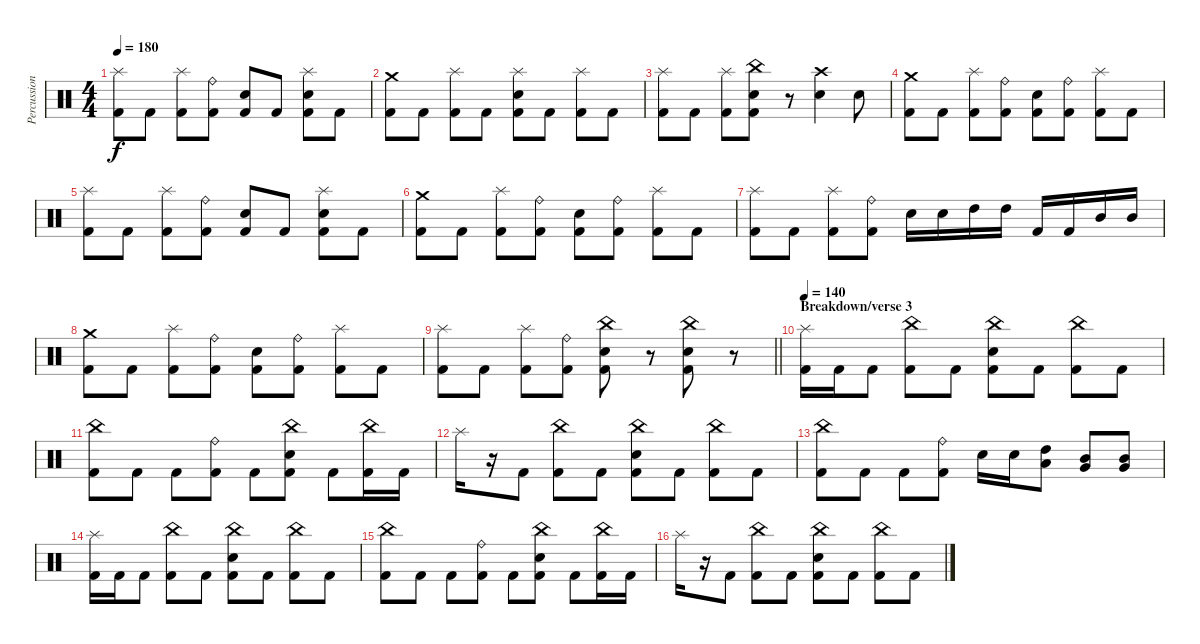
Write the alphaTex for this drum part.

\track ("Percussion" "Percussion") {instrument percussion}
\staff {score}
\articulation defaults
\ts (4 4)
\tempo 180
\clef neutral
\ks c
("Splash (hit)" "Kick (hit) 2").8{dy f} "Kick (hit) 2".8 ("Splash (hit)" "Kick (hit) 2").8 ("Ride (bell)" "Kick (hit) 2").8 ("Electric Snare (hit)" "Kick (hit) 2").8 "Kick (hit) 2".8 ("Splash (hit)" "Electric Snare (hit)" "Kick (hit) 2").8 "Kick (hit) 2".8 |
("Crash medium (hit)" "Kick (hit) 2").8 "Kick (hit) 2".8 ("Splash (hit)" "Kick (hit) 2").8 "Kick (hit) 2".8 ("Splash (hit)" "Electric Snare (hit)" "Kick (hit) 2").8 "Kick (hit) 2".8 ("Splash (hit)" "Kick (hit) 2").8 "Kick (hit) 2".8 |
("Splash (hit)" "Kick (hit) 2").8 "Kick (hit) 2".8 ("Splash (hit)" "Kick (hit) 2").8 ("China (hit)" "Electric Snare (hit)" "Kick (hit) 2").8 r.8 ("Crash high (hit)" "Electric Snare (hit)").4 "Electric Snare (hit)".8 |
("Crash medium (hit)" "Kick (hit) 2").8 "Kick (hit) 2".8 ("Splash (hit)" "Kick (hit) 2").8 ("Ride (bell)" "Kick (hit) 2").8 ("Electric Snare (hit)" "Kick (hit) 2").8 ("Ride (bell)" "Kick (hit) 2").8 ("Splash (hit)" "Kick (hit) 2").8 "Kick (hit) 2".8 |
("Splash (hit)" "Kick (hit) 2").8 "Kick (hit) 2".8 ("Splash (hit)" "Kick (hit) 2").8 ("Ride (bell)" "Kick (hit) 2").8 ("Electric Snare (hit)" "Kick (hit) 2").8 "Kick (hit) 2".8 ("Splash (hit)" "Electric Snare (hit)" "Kick (hit) 2").8 "Kick (hit) 2".8 |
("Crash medium (hit)" "Kick (hit) 2").8 "Kick (hit) 2".8 ("Splash (hit)" "Kick (hit) 2").8 ("Ride (bell)" "Kick (hit) 2").8 ("Electric Snare (hit)" "Kick (hit) 2").8 ("Ride (bell)" "Kick (hit) 2").8 ("Splash (hit)" "Kick (hit) 2").8 "Kick (hit) 2".8 |
("Splash (hit)" "Kick (hit) 2").8 "Kick (hit) 2".8 ("Splash (hit)" "Kick (hit) 2").8 ("Ride (bell)" "Kick (hit) 2").8 "Electric Snare (hit)".16 "Electric Snare (hit)".16 "High Tom (hit)".16 "High Tom (hit)".16 "Kick (hit) 2".16 "Kick (hit) 2".16 "Mid Tom (hit)".16 "Mid Tom (hit)".16 |
("Crash medium (hit)" "Kick (hit) 2").8 "Kick (hit) 2".8 ("Splash (hit)" "Kick (hit) 2").8 ("Ride (bell)" "Kick (hit) 2").8 ("Electric Snare (hit)" "Kick (hit) 2").8 ("Ride (bell)" "Kick (hit) 2").8 ("Splash (hit)" "Kick (hit) 2").8 "Kick (hit) 2".8 |
\barLineRight lightlight
("Splash (hit)" "Kick (hit) 2").8 "Kick (hit) 2".8 ("Splash (hit)" "Kick (hit) 2").8 ("Ride (bell)" "Kick (hit) 2").8 ("China (hit)" "Electric Snare (hit)" "Kick (hit) 2").8 r.8 ("China (hit)" "Electric Snare (hit)" "Kick (hit) 2").8 r.8 |
\section ("" "Breakdown/verse 3")
\tempo 140
("Splash (hit)" "Kick (hit) 2").16 "Kick (hit) 2".16 "Kick (hit) 2".8 ("China (hit)" "Kick (hit) 2").8 "Kick (hit) 2".8 ("China (hit)" "Electric Snare (hit)" "Kick (hit) 2").8 "Kick (hit) 2".8 ("China (hit)" "Kick (hit) 2").8 "Kick (hit) 2".8 |
("China (hit)" "Kick (hit) 2").8 "Kick (hit) 2".8 "Kick (hit) 2".8 ("Ride (bell)" "Kick (hit) 2").8 "Kick (hit) 2".8 ("China (hit)" "Electric Snare (hit)" "Kick (hit) 2").8 "Kick (hit) 2".8 ("China (hit)" "Kick (hit) 2").16 "Kick (hit) 2".16 |
"Splash (hit)".16 r.16 "Kick (hit) 2".8 ("China (hit)" "Kick (hit) 2").8 "Kick (hit) 2".8 ("China (hit)" "Electric Snare (hit)" "Kick (hit) 2").8 "Kick (hit) 2".8 ("China (hit)" "Kick (hit) 2").8 "Kick (hit) 2".8 |
("China (hit)" "Kick (hit) 2").8 "Kick (hit) 2".8 "Kick (hit) 2".8 ("Ride (bell)" "Kick (hit) 2").8 "Electric Snare (hit)".16 "Electric Snare (hit)".16 ("Low Tom (hit)" "High Tom (hit)").8 ("Very Low Tom (hit)" "Mid Tom (hit)").8 ("Very Low Tom (hit)" "Mid Tom (hit)").8 |
("Splash (hit)" "Kick (hit) 2").16 "Kick (hit) 2".16 "Kick (hit) 2".8 ("China (hit)" "Kick (hit) 2").8 "Kick (hit) 2".8 ("China (hit)" "Electric Snare (hit)" "Kick (hit) 2").8 "Kick (hit) 2".8 ("China (hit)" "Kick (hit) 2").8 "Kick (hit) 2".8 |
("China (hit)" "Kick (hit) 2").8 "Kick (hit) 2".8 "Kick (hit) 2".8 ("Ride (bell)" "Kick (hit) 2").8 "Kick (hit) 2".8 ("China (hit)" "Electric Snare (hit)" "Kick (hit) 2").8 "Kick (hit) 2".8 ("China (hit)" "Kick (hit) 2").16 "Kick (hit) 2".16 |
"Splash (hit)".16 r.16 "Kick (hit) 2".8 ("China (hit)" "Kick (hit) 2").8 "Kick (hit) 2".8 ("China (hit)" "Electric Snare (hit)" "Kick (hit) 2").8 "Kick (hit) 2".8 ("China (hit)" "Kick (hit) 2").8 "Kick (hit) 2".8
